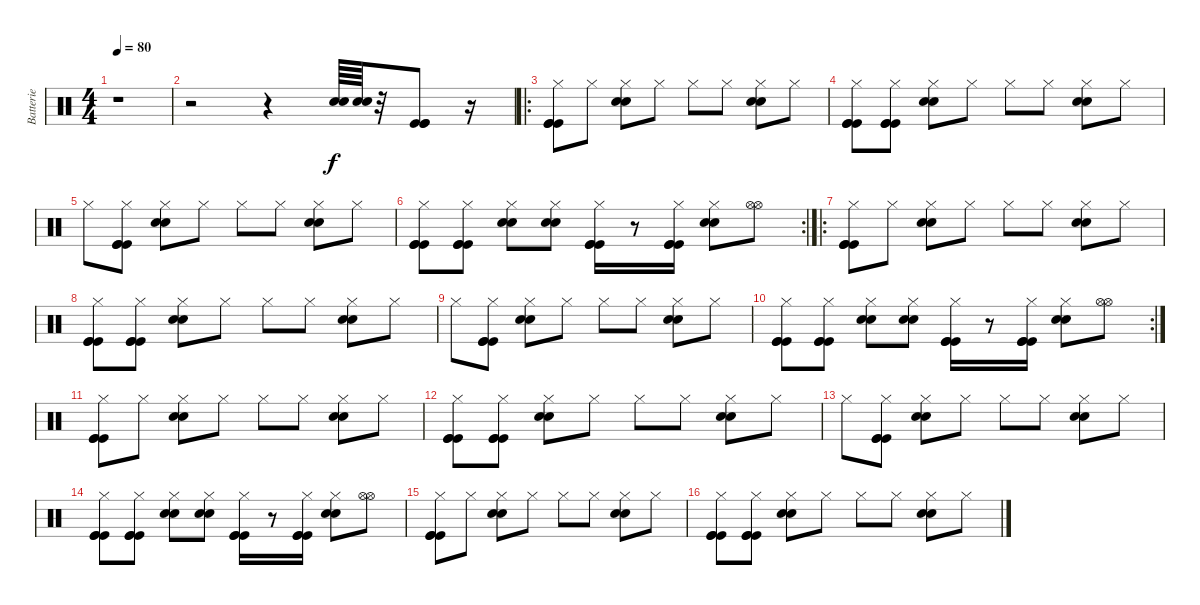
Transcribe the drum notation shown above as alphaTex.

\track ("Batterie" "Batterie") {instrument percussion}
\staff {score}
\articulation defaults
\ts (4 4)
\tempo 80
\clef neutral
\ks c
r.1{dy f} |
r.2 r.4 ("Snare (hit) 2" "Snare (hit) 2").64 ("Snare (hit) 2" "Snare (hit) 2").64 r.32 ("Kick (hit)" "Kick (hit)" "Kick (hit)").8 r.16 |
\ro
("Hi-Hat (closed)" "Kick (hit)" "Kick (hit)" "Kick (hit)").8 "Hi-Hat (closed)".8 ("Hi-Hat (closed)" "Snare (hit) 2" "Snare (hit) 2").8 "Hi-Hat (closed)".8 "Hi-Hat (closed)".8 "Hi-Hat (closed)".8 ("Hi-Hat (closed)" "Snare (hit) 2" "Snare (hit) 2").8 "Hi-Hat (closed)".8 |
("Hi-Hat (closed)" "Kick (hit)" "Kick (hit)" "Kick (hit)").8 ("Hi-Hat (closed)" "Kick (hit)" "Kick (hit)" "Kick (hit)").8 ("Hi-Hat (closed)" "Snare (hit) 2" "Snare (hit) 2").8 "Hi-Hat (closed)".8 "Hi-Hat (closed)".8 "Hi-Hat (closed)".8 ("Hi-Hat (closed)" "Snare (hit) 2" "Snare (hit) 2").8 "Hi-Hat (closed)".8 |
"Hi-Hat (closed)".8 ("Hi-Hat (closed)" "Kick (hit)" "Kick (hit)" "Kick (hit)").8 ("Hi-Hat (closed)" "Snare (hit) 2" "Snare (hit) 2").8 "Hi-Hat (closed)".8 "Hi-Hat (closed)".8 "Hi-Hat (closed)".8 ("Hi-Hat (closed)" "Snare (hit) 2" "Snare (hit) 2").8 "Hi-Hat (closed)".8 |
\rc 2
("Hi-Hat (closed)" "Kick (hit)" "Kick (hit)" "Kick (hit)").8 ("Hi-Hat (closed)" "Kick (hit)" "Kick (hit)" "Kick (hit)").8 ("Hi-Hat (closed)" "Snare (hit) 2" "Snare (hit) 2").8 ("Hi-Hat (closed)" "Snare (hit) 2" "Snare (hit) 2").8 ("Hi-Hat (closed)" "Kick (hit)" "Kick (hit)" "Kick (hit)").16 r.8 ("Hi-Hat (closed)" "Kick (hit)" "Kick (hit)" "Kick (hit)").16 ("Hi-Hat (closed)" "Snare (hit) 2" "Snare (hit) 2").8 ("Hi-Hat (open)" "Hi-Hat (open)").8 |
\ro
("Hi-Hat (closed)" "Kick (hit)" "Kick (hit)" "Kick (hit)").8 "Hi-Hat (closed)".8 ("Hi-Hat (closed)" "Snare (hit) 2" "Snare (hit) 2").8 "Hi-Hat (closed)".8 "Hi-Hat (closed)".8 "Hi-Hat (closed)".8 ("Hi-Hat (closed)" "Snare (hit) 2" "Snare (hit) 2").8 "Hi-Hat (closed)".8 |
("Hi-Hat (closed)" "Kick (hit)" "Kick (hit)" "Kick (hit)").8 ("Hi-Hat (closed)" "Kick (hit)" "Kick (hit)" "Kick (hit)").8 ("Hi-Hat (closed)" "Snare (hit) 2" "Snare (hit) 2").8 "Hi-Hat (closed)".8 "Hi-Hat (closed)".8 "Hi-Hat (closed)".8 ("Hi-Hat (closed)" "Snare (hit) 2" "Snare (hit) 2").8 "Hi-Hat (closed)".8 |
"Hi-Hat (closed)".8 ("Hi-Hat (closed)" "Kick (hit)" "Kick (hit)" "Kick (hit)").8 ("Hi-Hat (closed)" "Snare (hit) 2" "Snare (hit) 2").8 "Hi-Hat (closed)".8 "Hi-Hat (closed)".8 "Hi-Hat (closed)".8 ("Hi-Hat (closed)" "Snare (hit) 2" "Snare (hit) 2").8 "Hi-Hat (closed)".8 |
\rc 2
("Hi-Hat (closed)" "Kick (hit)" "Kick (hit)" "Kick (hit)").8 ("Hi-Hat (closed)" "Kick (hit)" "Kick (hit)" "Kick (hit)").8 ("Hi-Hat (closed)" "Snare (hit) 2" "Snare (hit) 2").8 ("Hi-Hat (closed)" "Snare (hit) 2" "Snare (hit) 2").8 ("Hi-Hat (closed)" "Kick (hit)" "Kick (hit)" "Kick (hit)").16 r.8 ("Hi-Hat (closed)" "Kick (hit)" "Kick (hit)" "Kick (hit)").16 ("Hi-Hat (closed)" "Snare (hit) 2" "Snare (hit) 2").8 ("Hi-Hat (open)" "Hi-Hat (open)").8 |
("Hi-Hat (closed)" "Kick (hit)" "Kick (hit)" "Kick (hit)").8 "Hi-Hat (closed)".8 ("Hi-Hat (closed)" "Snare (hit) 2" "Snare (hit) 2").8 "Hi-Hat (closed)".8 "Hi-Hat (closed)".8 "Hi-Hat (closed)".8 ("Hi-Hat (closed)" "Snare (hit) 2" "Snare (hit) 2").8 "Hi-Hat (closed)".8 |
("Hi-Hat (closed)" "Kick (hit)" "Kick (hit)" "Kick (hit)").8 ("Hi-Hat (closed)" "Kick (hit)" "Kick (hit)" "Kick (hit)").8 ("Hi-Hat (closed)" "Snare (hit) 2" "Snare (hit) 2").8 "Hi-Hat (closed)".8 "Hi-Hat (closed)".8 "Hi-Hat (closed)".8 ("Hi-Hat (closed)" "Snare (hit) 2" "Snare (hit) 2").8 "Hi-Hat (closed)".8 |
"Hi-Hat (closed)".8 ("Hi-Hat (closed)" "Kick (hit)" "Kick (hit)" "Kick (hit)").8 ("Hi-Hat (closed)" "Snare (hit) 2" "Snare (hit) 2").8 "Hi-Hat (closed)".8 "Hi-Hat (closed)".8 "Hi-Hat (closed)".8 ("Hi-Hat (closed)" "Snare (hit) 2" "Snare (hit) 2").8 "Hi-Hat (closed)".8 |
("Hi-Hat (closed)" "Kick (hit)" "Kick (hit)" "Kick (hit)").8 ("Hi-Hat (closed)" "Kick (hit)" "Kick (hit)" "Kick (hit)").8 ("Hi-Hat (closed)" "Snare (hit) 2" "Snare (hit) 2").8 ("Hi-Hat (closed)" "Snare (hit) 2" "Snare (hit) 2").8 ("Hi-Hat (closed)" "Kick (hit)" "Kick (hit)" "Kick (hit)").16 r.8 ("Hi-Hat (closed)" "Kick (hit)" "Kick (hit)" "Kick (hit)").16 ("Hi-Hat (closed)" "Snare (hit) 2" "Snare (hit) 2").8 ("Hi-Hat (open)" "Hi-Hat (open)").8 |
("Hi-Hat (closed)" "Kick (hit)" "Kick (hit)" "Kick (hit)").8 "Hi-Hat (closed)".8 ("Hi-Hat (closed)" "Snare (hit) 2" "Snare (hit) 2").8 "Hi-Hat (closed)".8 "Hi-Hat (closed)".8 "Hi-Hat (closed)".8 ("Hi-Hat (closed)" "Snare (hit) 2" "Snare (hit) 2").8 "Hi-Hat (closed)".8 |
("Hi-Hat (closed)" "Kick (hit)" "Kick (hit)" "Kick (hit)").8 ("Hi-Hat (closed)" "Kick (hit)" "Kick (hit)" "Kick (hit)").8 ("Hi-Hat (closed)" "Snare (hit) 2" "Snare (hit) 2").8 "Hi-Hat (closed)".8 "Hi-Hat (closed)".8 "Hi-Hat (closed)".8 ("Hi-Hat (closed)" "Snare (hit) 2" "Snare (hit) 2").8 "Hi-Hat (closed)".8
